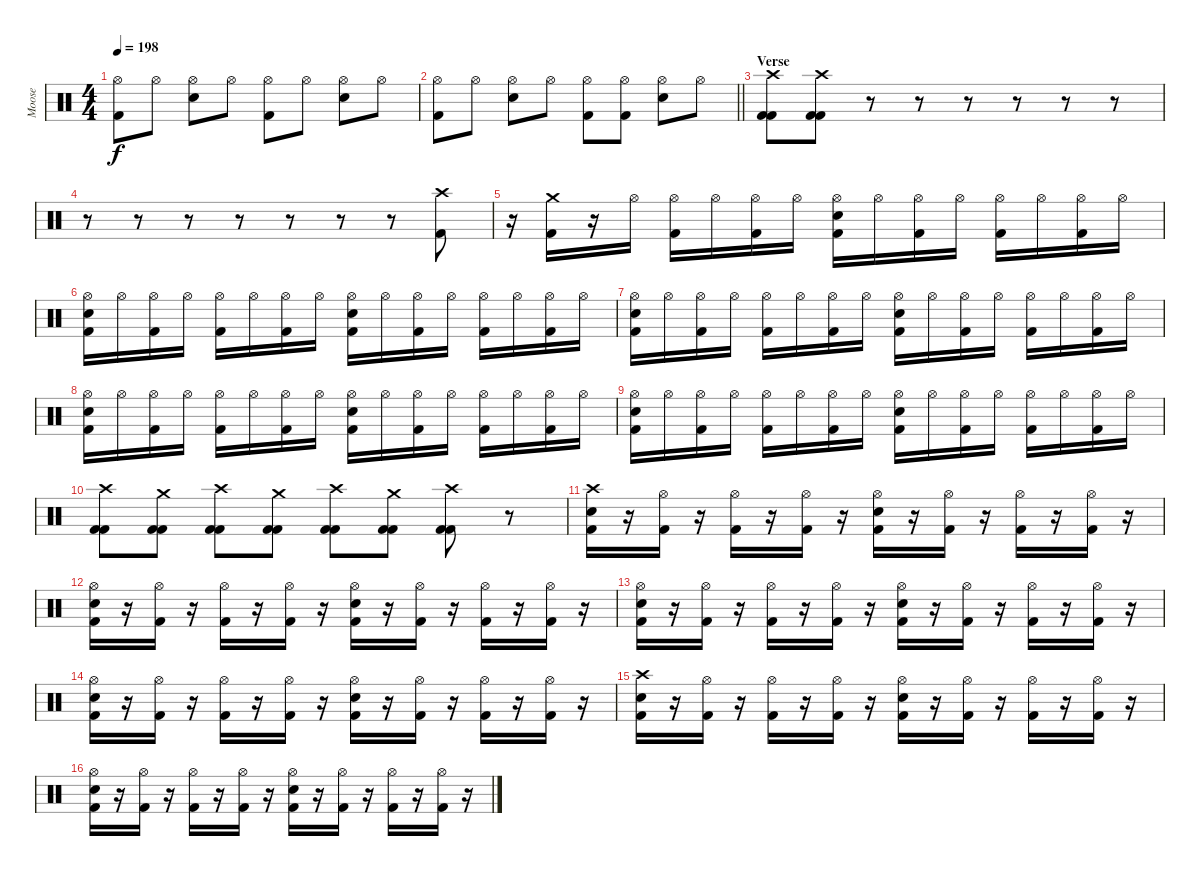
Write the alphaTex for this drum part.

\track ("Moose" "Moose") {instrument percussion}
\staff {score}
\articulation defaults
\ts (4 4)
\tempo 198
\clef neutral
\ks c
("Hi-Hat (open)" "Kick (hit) 2").8{dy f} "Hi-Hat (open)".8 ("Hi-Hat (open)" "Electric Snare (hit)").8 "Hi-Hat (open)".8 ("Hi-Hat (open)" "Kick (hit) 2").8 "Hi-Hat (open)".8 ("Hi-Hat (open)" "Electric Snare (hit)").8 "Hi-Hat (open)".8 |
\barLineRight lightlight
("Hi-Hat (open)" "Kick (hit) 2").8 "Hi-Hat (open)".8 ("Hi-Hat (open)" "Electric Snare (hit)").8 "Hi-Hat (open)".8 ("Hi-Hat (open)" "Kick (hit) 2").8 ("Hi-Hat (open)" "Kick (hit) 2").8 ("Hi-Hat (open)" "Electric Snare (hit)").8 "Hi-Hat (open)".8 |
\section ("" "Verse")
("Crash high (hit)" "Kick (hit) 2" "Kick (hit) 2").8 ("Crash high (hit)" "Kick (hit) 2" "Kick (hit) 2").8 r.8 r.8 r.8 r.8 r.8 r.8 |
r.8 r.8 r.8 r.8 r.8 r.8 r.8 ("Crash high (hit)" "Kick (hit) 2").8 |
r.16 ("Crash medium (hit)" "Kick (hit) 2").16 r.16 "Hi-Hat (open)".16 ("Hi-Hat (open)" "Kick (hit) 2").16 "Hi-Hat (open)".16 ("Hi-Hat (open)" "Kick (hit) 2").16 "Hi-Hat (open)".16 ("Hi-Hat (open)" "Electric Snare (hit)" "Kick (hit) 2").16 "Hi-Hat (open)".16 ("Hi-Hat (open)" "Kick (hit) 2").16 "Hi-Hat (open)".16 ("Hi-Hat (open)" "Kick (hit) 2").16 "Hi-Hat (open)".16 ("Hi-Hat (open)" "Kick (hit) 2").16 "Hi-Hat (open)".16 |
("Hi-Hat (open)" "Electric Snare (hit)" "Kick (hit) 2").16 "Hi-Hat (open)".16 ("Hi-Hat (open)" "Kick (hit) 2").16 "Hi-Hat (open)".16 ("Hi-Hat (open)" "Kick (hit) 2").16 "Hi-Hat (open)".16 ("Hi-Hat (open)" "Kick (hit) 2").16 "Hi-Hat (open)".16 ("Hi-Hat (open)" "Electric Snare (hit)" "Kick (hit) 2").16 "Hi-Hat (open)".16 ("Hi-Hat (open)" "Kick (hit) 2").16 "Hi-Hat (open)".16 ("Hi-Hat (open)" "Kick (hit) 2").16 "Hi-Hat (open)".16 ("Hi-Hat (open)" "Kick (hit) 2").16 "Hi-Hat (open)".16 |
("Hi-Hat (open)" "Electric Snare (hit)" "Kick (hit) 2").16 "Hi-Hat (open)".16 ("Hi-Hat (open)" "Kick (hit) 2").16 "Hi-Hat (open)".16 ("Hi-Hat (open)" "Kick (hit) 2").16 "Hi-Hat (open)".16 ("Hi-Hat (open)" "Kick (hit) 2").16 "Hi-Hat (open)".16 ("Hi-Hat (open)" "Electric Snare (hit)" "Kick (hit) 2").16 "Hi-Hat (open)".16 ("Hi-Hat (open)" "Kick (hit) 2").16 "Hi-Hat (open)".16 ("Hi-Hat (open)" "Kick (hit) 2").16 "Hi-Hat (open)".16 ("Hi-Hat (open)" "Kick (hit) 2").16 "Hi-Hat (open)".16 |
("Hi-Hat (open)" "Electric Snare (hit)" "Kick (hit) 2").16 "Hi-Hat (open)".16 ("Hi-Hat (open)" "Kick (hit) 2").16 "Hi-Hat (open)".16 ("Hi-Hat (open)" "Kick (hit) 2").16 "Hi-Hat (open)".16 ("Hi-Hat (open)" "Kick (hit) 2").16 "Hi-Hat (open)".16 ("Hi-Hat (open)" "Electric Snare (hit)" "Kick (hit) 2").16 "Hi-Hat (open)".16 ("Hi-Hat (open)" "Kick (hit) 2").16 "Hi-Hat (open)".16 ("Hi-Hat (open)" "Kick (hit) 2").16 "Hi-Hat (open)".16 ("Hi-Hat (open)" "Kick (hit) 2").16 "Hi-Hat (open)".16 |
("Hi-Hat (open)" "Electric Snare (hit)" "Kick (hit) 2").16 "Hi-Hat (open)".16 ("Hi-Hat (open)" "Kick (hit) 2").16 "Hi-Hat (open)".16 ("Hi-Hat (open)" "Kick (hit) 2").16 "Hi-Hat (open)".16 ("Hi-Hat (open)" "Kick (hit) 2").16 "Hi-Hat (open)".16 ("Hi-Hat (open)" "Electric Snare (hit)" "Kick (hit) 2").16 "Hi-Hat (open)".16 ("Hi-Hat (open)" "Kick (hit) 2").16 "Hi-Hat (open)".16 ("Hi-Hat (open)" "Kick (hit) 2").16 "Hi-Hat (open)".16 ("Hi-Hat (open)" "Kick (hit) 2").16 "Hi-Hat (open)".16 |
("Crash high (hit)" "Kick (hit) 2" "Kick (hit) 2").8 ("Crash medium (hit)" "Kick (hit) 2" "Kick (hit) 2").8 ("Crash high (hit)" "Kick (hit) 2" "Kick (hit) 2").8 ("Crash medium (hit)" "Kick (hit) 2" "Kick (hit) 2").8 ("Crash high (hit)" "Kick (hit) 2" "Kick (hit) 2").8 ("Crash medium (hit)" "Kick (hit) 2" "Kick (hit) 2").8 ("Crash high (hit)" "Kick (hit) 2" "Kick (hit) 2").8 r.8 |
("Crash high (hit)" "Electric Snare (hit)" "Kick (hit) 2").16 r.16 ("Hi-Hat (open)" "Kick (hit) 2").16 r.16 ("Hi-Hat (open)" "Kick (hit) 2").16 r.16 ("Hi-Hat (open)" "Kick (hit) 2").16 r.16 ("Hi-Hat (open)" "Electric Snare (hit)" "Kick (hit) 2").16 r.16 ("Hi-Hat (open)" "Kick (hit) 2").16 r.16 ("Hi-Hat (open)" "Kick (hit) 2").16 r.16 ("Hi-Hat (open)" "Kick (hit) 2").16 r.16 |
("Hi-Hat (open)" "Electric Snare (hit)" "Kick (hit) 2").16 r.16 ("Hi-Hat (open)" "Kick (hit) 2").16 r.16 ("Hi-Hat (open)" "Kick (hit) 2").16 r.16 ("Hi-Hat (open)" "Kick (hit) 2").16 r.16 ("Hi-Hat (open)" "Electric Snare (hit)" "Kick (hit) 2").16 r.16 ("Hi-Hat (open)" "Kick (hit) 2").16 r.16 ("Hi-Hat (open)" "Kick (hit) 2").16 r.16 ("Hi-Hat (open)" "Kick (hit) 2").16 r.16 |
("Hi-Hat (open)" "Electric Snare (hit)" "Kick (hit) 2").16 r.16 ("Hi-Hat (open)" "Kick (hit) 2").16 r.16 ("Hi-Hat (open)" "Kick (hit) 2").16 r.16 ("Hi-Hat (open)" "Kick (hit) 2").16 r.16 ("Hi-Hat (open)" "Electric Snare (hit)" "Kick (hit) 2").16 r.16 ("Hi-Hat (open)" "Kick (hit) 2").16 r.16 ("Hi-Hat (open)" "Kick (hit) 2").16 r.16 ("Hi-Hat (open)" "Kick (hit) 2").16 r.16 |
("Hi-Hat (open)" "Electric Snare (hit)" "Kick (hit) 2").16 r.16 ("Hi-Hat (open)" "Kick (hit) 2").16 r.16 ("Hi-Hat (open)" "Kick (hit) 2").16 r.16 ("Hi-Hat (open)" "Kick (hit) 2").16 r.16 ("Hi-Hat (open)" "Electric Snare (hit)" "Kick (hit) 2").16 r.16 ("Hi-Hat (open)" "Kick (hit) 2").16 r.16 ("Hi-Hat (open)" "Kick (hit) 2").16 r.16 ("Hi-Hat (open)" "Kick (hit) 2").16 r.16 |
("Crash high (hit)" "Electric Snare (hit)" "Kick (hit) 2").16 r.16 ("Hi-Hat (open)" "Kick (hit) 2").16 r.16 ("Hi-Hat (open)" "Kick (hit) 2").16 r.16 ("Hi-Hat (open)" "Kick (hit) 2").16 r.16 ("Hi-Hat (open)" "Electric Snare (hit)" "Kick (hit) 2").16 r.16 ("Hi-Hat (open)" "Kick (hit) 2").16 r.16 ("Hi-Hat (open)" "Kick (hit) 2").16 r.16 ("Hi-Hat (open)" "Kick (hit) 2").16 r.16 |
("Hi-Hat (open)" "Electric Snare (hit)" "Kick (hit) 2").16 r.16 ("Hi-Hat (open)" "Kick (hit) 2").16 r.16 ("Hi-Hat (open)" "Kick (hit) 2").16 r.16 ("Hi-Hat (open)" "Kick (hit) 2").16 r.16 ("Hi-Hat (open)" "Electric Snare (hit)" "Kick (hit) 2").16 r.16 ("Hi-Hat (open)" "Kick (hit) 2").16 r.16 ("Hi-Hat (open)" "Kick (hit) 2").16 r.16 ("Hi-Hat (open)" "Kick (hit) 2").16 r.16
